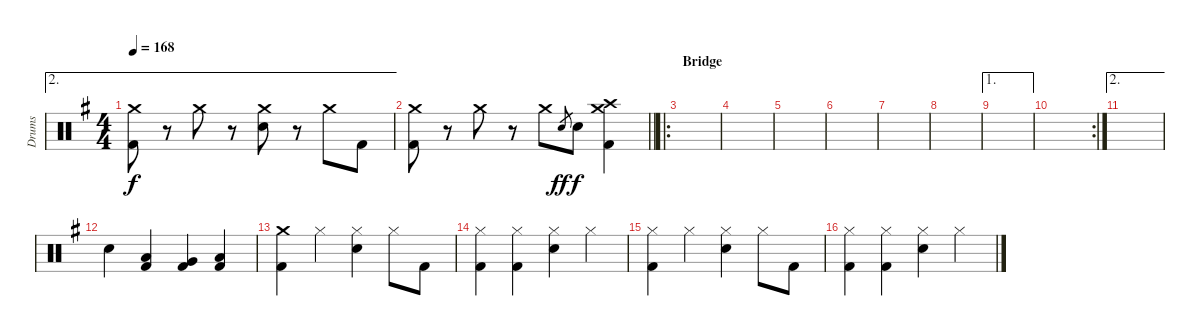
\track ("Drums" "Drums") {instrument percussion}
\staff {score}
\articulation defaults
\ae 2
\ts (4 4)
\tempo 168
\clef neutral
\ks g
("Crash medium (hit)" "Kick (hit) 2").8{dy f} r.8 "Crash medium (hit)".8 r.8 ("Crash medium (hit)" "Electric Snare (hit)").8 r.8 "Crash medium (hit)".8 "Kick (hit) 2".8 |
\barLineRight lightlight
("Crash medium (hit)" "Kick (hit) 2").8 r.8 "Crash medium (hit)".8 r.8 "Crash medium (hit)".8 "Electric Snare (hit)".8{gr dy ff} "Electric Snare (hit)".8{dy f} ("Crash high (hit)" "Crash medium (hit)" "Kick (hit) 2").4 |
\ro
\section ("" "Bridge")
|
|
|
|
|
|
\ae 1
|
\rc 2
|
\ae 2
|
"Electric Snare (hit)".4 ("Low Tom (hit)" "Kick (hit) 2").4 ("Very Low Tom (hit)" "Kick (hit) 2").4 ("Low Floor Tom (hit)" "Kick (hit) 2").4 |
("Crash medium (hit)" "Kick (hit) 2").4 "Hi-Hat (closed)".4 ("Hi-Hat (closed)" "Electric Snare (hit)").4 "Hi-Hat (closed)".8 "Kick (hit) 2".8 |
("Hi-Hat (closed)" "Kick (hit) 2").4 ("Hi-Hat (closed)" "Kick (hit) 2").4 ("Hi-Hat (closed)" "Electric Snare (hit)").4 "Hi-Hat (closed)".4 |
("Hi-Hat (closed)" "Kick (hit) 2").4 "Hi-Hat (closed)".4 ("Hi-Hat (closed)" "Electric Snare (hit)").4 "Hi-Hat (closed)".8 "Kick (hit) 2".8 |
("Hi-Hat (closed)" "Kick (hit) 2").4 ("Hi-Hat (closed)" "Kick (hit) 2").4 ("Hi-Hat (closed)" "Electric Snare (hit)").4 "Hi-Hat (closed)".4
